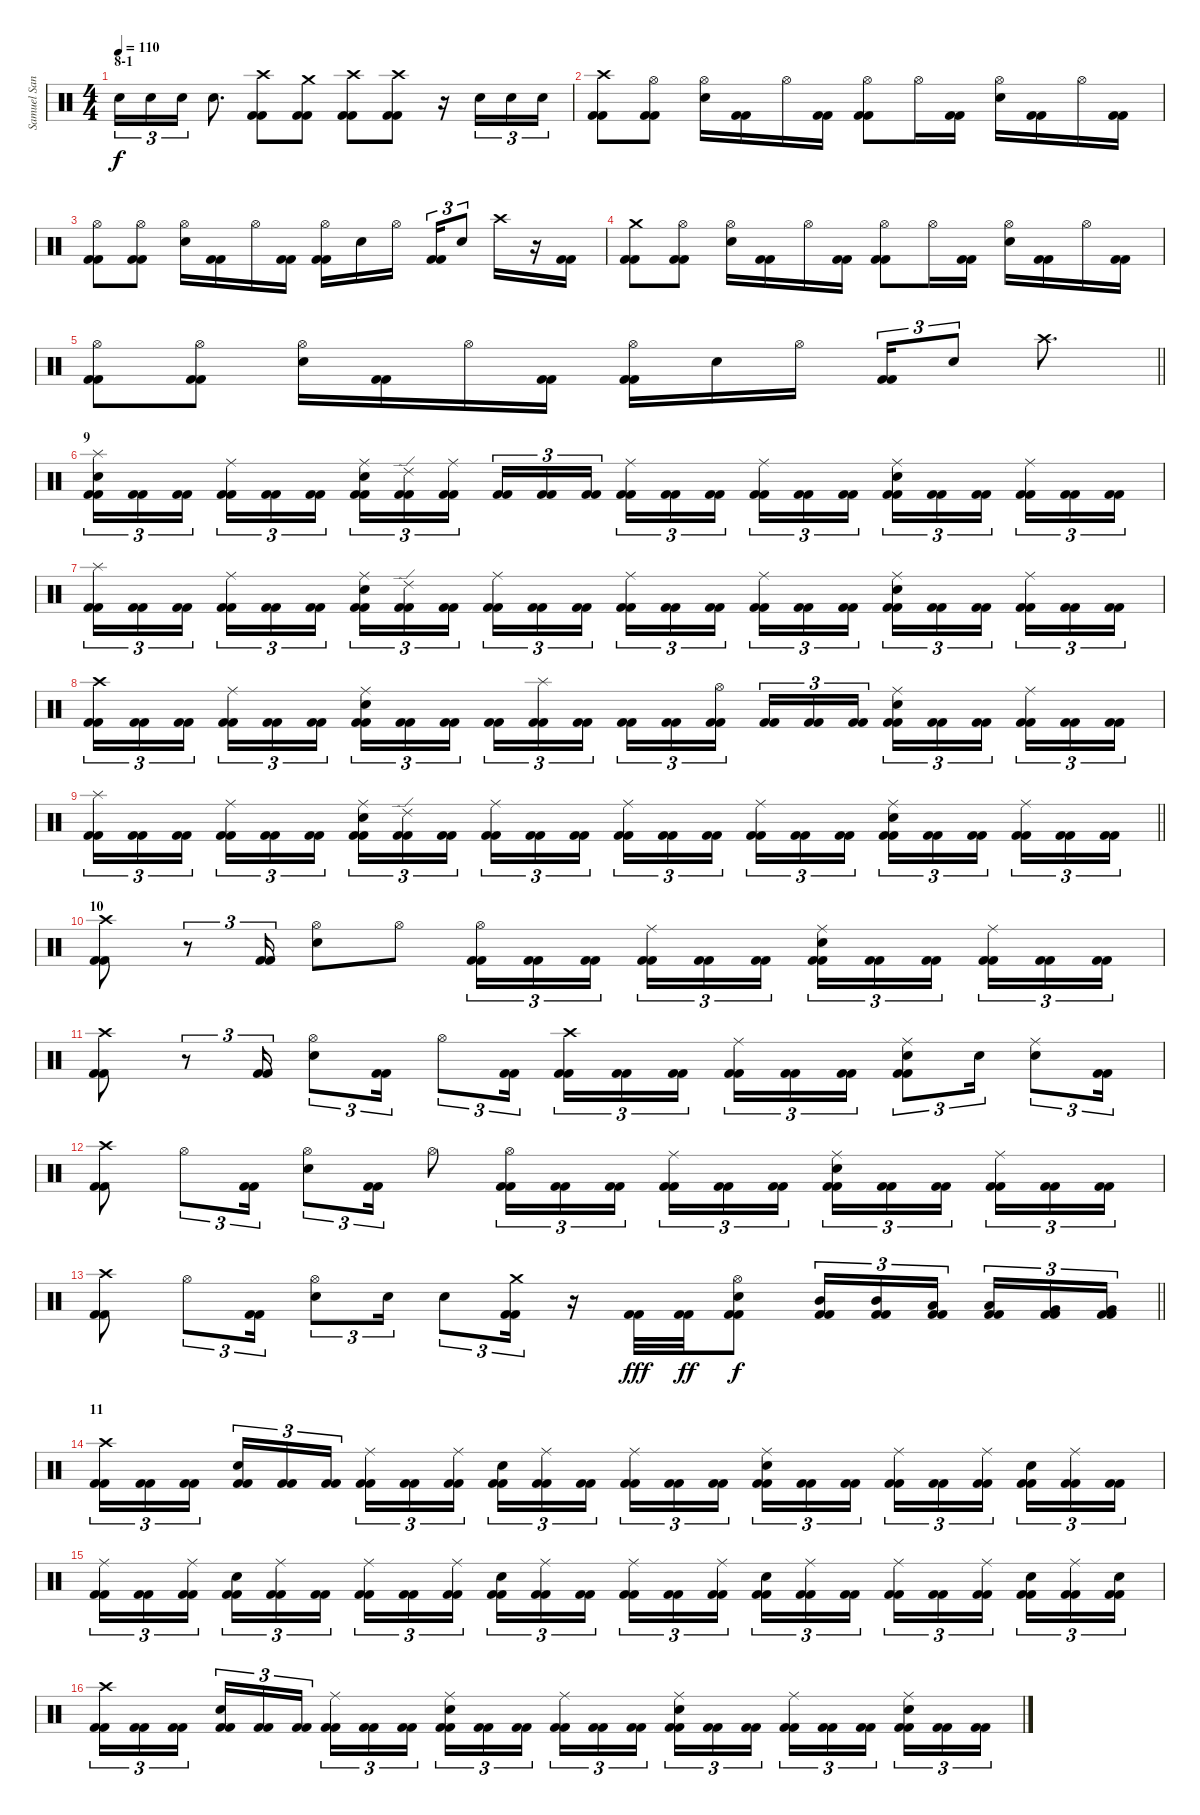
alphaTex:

\track ("Samuel Santiago" "Samuel San") {instrument percussion}
\staff {score}
\articulation defaults
\ts (4 4)
\section ("" "8-1")
\tempo 110
\clef neutral
\ks c "Electric Snare (hit)".16{tu (3 2) dy f} "Electric Snare (hit)".16{tu (3 2)} "Electric Snare (hit)".16{tu (3 2)} "Electric Snare (hit)".8{d}
("Crash high (hit)" "Kick (hit) 2" "Kick (hit) 2").8 ("Crash medium (hit)" "Kick (hit) 2" "Kick (hit) 2").8 ("Crash high (hit)" "Kick (hit) 2" "Kick (hit) 2").8 ("Crash high (hit)" "Kick (hit) 2" "Kick (hit) 2").8 r.16 "Electric Snare (hit)".16{tu (3 2)} "Electric Snare (hit)".16{tu (3 2)} "Electric Snare (hit)".16{tu (3 2)} |
("Crash high (hit)" "Kick (hit) 2" "Kick (hit) 2").8 ("Hi-Hat (open)" "Kick (hit) 2" "Kick (hit) 2").8 ("Hi-Hat (open)" "Electric Snare (hit)").16 ("Kick (hit) 2" "Kick (hit) 2").16 "Hi-Hat (open)".16 ("Kick (hit) 2" "Kick (hit) 2").16 ("Hi-Hat (open)" "Kick (hit) 2" "Kick (hit) 2").8 "Hi-Hat (open)".16 ("Kick (hit) 2" "Kick (hit) 2").16 ("Hi-Hat (open)" "Electric Snare (hit)").16 ("Kick (hit) 2" "Kick (hit) 2").16 "Hi-Hat (open)".16 ("Kick (hit) 2" "Kick (hit) 2").16 |
("Hi-Hat (open)" "Kick (hit) 2" "Kick (hit) 2").8 ("Hi-Hat (open)" "Kick (hit) 2" "Kick (hit) 2").8 ("Hi-Hat (open)" "Electric Snare (hit)").16 ("Kick (hit) 2" "Kick (hit) 2").16 "Hi-Hat (open)".16 ("Kick (hit) 2" "Kick (hit) 2").16 ("Hi-Hat (open)" "Kick (hit) 2" "Kick (hit) 2").16 "Electric Snare (hit)".16 "Hi-Hat (open)".16{beam splitsecondary} ("Kick (hit) 2" "Kick (hit) 2").16{tu (3 2)} "Electric Snare (hit)".8{tu (3 2)} "Crash high (hit)".16 r.16 ("Kick (hit) 2" "Kick (hit) 2").16 |
("Crash medium (hit)" "Kick (hit) 2" "Kick (hit) 2").8 ("Hi-Hat (open)" "Kick (hit) 2" "Kick (hit) 2").8 ("Hi-Hat (open)" "Electric Snare (hit)").16 ("Kick (hit) 2" "Kick (hit) 2").16 "Hi-Hat (open)".16 ("Kick (hit) 2" "Kick (hit) 2").16 ("Hi-Hat (open)" "Kick (hit) 2" "Kick (hit) 2").8 "Hi-Hat (open)".16 ("Kick (hit) 2" "Kick (hit) 2").16 ("Hi-Hat (open)" "Electric Snare (hit)").16 ("Kick (hit) 2" "Kick (hit) 2").16 "Hi-Hat (open)".16 ("Kick (hit) 2" "Kick (hit) 2").16 |
\barLineRight lightlight
("Hi-Hat (open)" "Kick (hit) 2" "Kick (hit) 2").8 ("Hi-Hat (open)" "Kick (hit) 2" "Kick (hit) 2").8 ("Hi-Hat (open)" "Electric Snare (hit)").16 ("Kick (hit) 2" "Kick (hit) 2").16 "Hi-Hat (open)".16 ("Kick (hit) 2" "Kick (hit) 2").16 ("Hi-Hat (open)" "Kick (hit) 2" "Kick (hit) 2").16 "Electric Snare (hit)".16 "Hi-Hat (open)".16{beam splitsecondary} ("Kick (hit) 2" "Kick (hit) 2").16{tu (3 2)} "Electric Snare (hit)".8{tu (3 2)} "Crash high (hit)".8{d} |
\section ("" "9")
("Splash (hit)" "Electric Snare (hit)" "Kick (hit) 2" "Kick (hit) 2").16{tu (3 2)} ("Kick (hit) 2" "Kick (hit) 2").16{tu (3 2)} ("Kick (hit) 2" "Kick (hit) 2").16{tu (3 2) beam splitsecondary} ("Ride (middle)" "Kick (hit) 2" "Kick (hit) 2").16{tu (3 2)} ("Kick (hit) 2" "Kick (hit) 2").16{tu (3 2)} ("Kick (hit) 2" "Kick (hit) 2").16{tu (3 2)} ("Ride (middle)" "Electric Snare (hit)" "Kick (hit) 2" "Kick (hit) 2").16{tu (3 2)} ("Ride (edge) 2" "Kick (hit) 2" "Kick (hit) 2").16{tu (3 2)} ("Ride (middle)" "Kick (hit) 2" "Kick (hit) 2").16{tu (3 2) beam splitsecondary} ("Kick (hit) 2" "Kick (hit) 2").16{tu (3 2)} ("Kick (hit) 2" "Kick (hit) 2").16{tu (3 2)} ("Kick (hit) 2" "Kick (hit) 2").16{tu (3 2)} ("Ride (middle)" "Kick (hit) 2" "Kick (hit) 2").16{tu (3 2)} ("Kick (hit) 2" "Kick (hit) 2").16{tu (3 2)} ("Kick (hit) 2" "Kick (hit) 2").16{tu (3 2) beam splitsecondary} ("Ride (middle)" "Kick (hit) 2" "Kick (hit) 2").16{tu (3 2)} ("Kick (hit) 2" "Kick (hit) 2").16{tu (3 2)} ("Kick (hit) 2" "Kick (hit) 2").16{tu (3 2)} ("Ride (middle)" "Electric Snare (hit)" "Kick (hit) 2" "Kick (hit) 2").16{tu (3 2)} ("Kick (hit) 2" "Kick (hit) 2").16{tu (3 2)} ("Kick (hit) 2" "Kick (hit) 2").16{tu (3 2) beam splitsecondary} ("Ride (middle)" "Kick (hit) 2" "Kick (hit) 2").16{tu (3 2)} ("Kick (hit) 2" "Kick (hit) 2").16{tu (3 2)} ("Kick (hit) 2" "Kick (hit) 2").16{tu (3 2)} |
("Splash (hit)" "Kick (hit) 2" "Kick (hit) 2").16{tu (3 2)} ("Kick (hit) 2" "Kick (hit) 2").16{tu (3 2)} ("Kick (hit) 2" "Kick (hit) 2").16{tu (3 2) beam splitsecondary} ("Ride (middle)" "Kick (hit) 2" "Kick (hit) 2").16{tu (3 2)} ("Kick (hit) 2" "Kick (hit) 2").16{tu (3 2)} ("Kick (hit) 2" "Kick (hit) 2").16{tu (3 2)} ("Ride (middle)" "Electric Snare (hit)" "Kick (hit) 2" "Kick (hit) 2").16{tu (3 2)} ("Ride (edge) 2" "Kick (hit) 2" "Kick (hit) 2").16{tu (3 2)} ("Kick (hit) 2" "Kick (hit) 2").16{tu (3 2) beam splitsecondary} ("Ride (middle)" "Kick (hit) 2" "Kick (hit) 2").16{tu (3 2)} ("Kick (hit) 2" "Kick (hit) 2").16{tu (3 2)} ("Kick (hit) 2" "Kick (hit) 2").16{tu (3 2)} ("Ride (middle)" "Kick (hit) 2" "Kick (hit) 2").16{tu (3 2)} ("Kick (hit) 2" "Kick (hit) 2").16{tu (3 2)} ("Kick (hit) 2" "Kick (hit) 2").16{tu (3 2) beam splitsecondary} ("Ride (middle)" "Kick (hit) 2" "Kick (hit) 2").16{tu (3 2)} ("Kick (hit) 2" "Kick (hit) 2").16{tu (3 2)} ("Kick (hit) 2" "Kick (hit) 2").16{tu (3 2)} ("Ride (middle)" "Electric Snare (hit)" "Kick (hit) 2" "Kick (hit) 2").16{tu (3 2)} ("Kick (hit) 2" "Kick (hit) 2").16{tu (3 2)} ("Kick (hit) 2" "Kick (hit) 2").16{tu (3 2) beam splitsecondary} ("Ride (middle)" "Kick (hit) 2" "Kick (hit) 2").16{tu (3 2)} ("Kick (hit) 2" "Kick (hit) 2").16{tu (3 2)} ("Kick (hit) 2" "Kick (hit) 2").16{tu (3 2)} |
("Crash high (hit)" "Kick (hit) 2" "Kick (hit) 2").16{tu (3 2)} ("Kick (hit) 2" "Kick (hit) 2").16{tu (3 2)} ("Kick (hit) 2" "Kick (hit) 2").16{tu (3 2) beam splitsecondary} ("Ride (middle)" "Kick (hit) 2" "Kick (hit) 2").16{tu (3 2)} ("Kick (hit) 2" "Kick (hit) 2").16{tu (3 2)} ("Kick (hit) 2" "Kick (hit) 2").16{tu (3 2)} ("Ride (middle)" "Electric Snare (hit)" "Kick (hit) 2" "Kick (hit) 2").16{tu (3 2)} ("Kick (hit) 2" "Kick (hit) 2").16{tu (3 2)} ("Kick (hit) 2" "Kick (hit) 2").16{tu (3 2) beam splitsecondary} ("Kick (hit) 2" "Kick (hit) 2").16{tu (3 2)} ("Splash (hit)" "Kick (hit) 2" "Kick (hit) 2").16{tu (3 2)} ("Kick (hit) 2" "Kick (hit) 2").16{tu (3 2)} ("Kick (hit) 2" "Kick (hit) 2").16{tu (3 2)} ("Kick (hit) 2" "Kick (hit) 2").16{tu (3 2)} ("Hi-Hat (open)" "Kick (hit) 2" "Kick (hit) 2").16{tu (3 2) beam splitsecondary} ("Kick (hit) 2" "Kick (hit) 2").16{tu (3 2)} ("Kick (hit) 2" "Kick (hit) 2").16{tu (3 2)} ("Kick (hit) 2" "Kick (hit) 2").16{tu (3 2)} ("Ride (middle)" "Electric Snare (hit)" "Kick (hit) 2" "Kick (hit) 2").16{tu (3 2)} ("Kick (hit) 2" "Kick (hit) 2").16{tu (3 2)} ("Kick (hit) 2" "Kick (hit) 2").16{tu (3 2) beam splitsecondary} ("Ride (middle)" "Kick (hit) 2" "Kick (hit) 2").16{tu (3 2)} ("Kick (hit) 2" "Kick (hit) 2").16{tu (3 2)} ("Kick (hit) 2" "Kick (hit) 2").16{tu (3 2)} |
\barLineRight lightlight
("Splash (hit)" "Kick (hit) 2" "Kick (hit) 2").16{tu (3 2)} ("Kick (hit) 2" "Kick (hit) 2").16{tu (3 2)} ("Kick (hit) 2" "Kick (hit) 2").16{tu (3 2) beam splitsecondary} ("Ride (middle)" "Kick (hit) 2" "Kick (hit) 2").16{tu (3 2)} ("Kick (hit) 2" "Kick (hit) 2").16{tu (3 2)} ("Kick (hit) 2" "Kick (hit) 2").16{tu (3 2)} ("Ride (middle)" "Electric Snare (hit)" "Kick (hit) 2" "Kick (hit) 2").16{tu (3 2)} ("Ride (edge) 2" "Kick (hit) 2" "Kick (hit) 2").16{tu (3 2)} ("Kick (hit) 2" "Kick (hit) 2").16{tu (3 2) beam splitsecondary} ("Ride (middle)" "Kick (hit) 2" "Kick (hit) 2").16{tu (3 2)} ("Kick (hit) 2" "Kick (hit) 2").16{tu (3 2)} ("Kick (hit) 2" "Kick (hit) 2").16{tu (3 2)} ("Ride (middle)" "Kick (hit) 2" "Kick (hit) 2").16{tu (3 2)} ("Kick (hit) 2" "Kick (hit) 2").16{tu (3 2)} ("Kick (hit) 2" "Kick (hit) 2").16{tu (3 2) beam splitsecondary} ("Ride (middle)" "Kick (hit) 2" "Kick (hit) 2").16{tu (3 2)} ("Kick (hit) 2" "Kick (hit) 2").16{tu (3 2)} ("Kick (hit) 2" "Kick (hit) 2").16{tu (3 2)} ("Ride (middle)" "Electric Snare (hit)" "Kick (hit) 2" "Kick (hit) 2").16{tu (3 2)} ("Kick (hit) 2" "Kick (hit) 2").16{tu (3 2)} ("Kick (hit) 2" "Kick (hit) 2").16{tu (3 2) beam splitsecondary} ("Ride (middle)" "Kick (hit) 2" "Kick (hit) 2").16{tu (3 2)} ("Kick (hit) 2" "Kick (hit) 2").16{tu (3 2)} ("Kick (hit) 2" "Kick (hit) 2").16{tu (3 2)} |
\section ("" "10")
("Crash high (hit)" "Kick (hit) 2" "Kick (hit) 2").8 r.8{tu (3 2)} ("Kick (hit) 2" "Kick (hit) 2").16{tu (3 2)} ("Hi-Hat (open)" "Electric Snare (hit)").8 "Hi-Hat (open)".8 ("Hi-Hat (open)" "Kick (hit) 2" "Kick (hit) 2").16{tu (3 2)} ("Kick (hit) 2" "Kick (hit) 2").16{tu (3 2)} ("Kick (hit) 2" "Kick (hit) 2").16{tu (3 2) beam splitsecondary} ("Ride (middle)" "Kick (hit) 2" "Kick (hit) 2").16{tu (3 2)} ("Kick (hit) 2" "Kick (hit) 2").16{tu (3 2)} ("Kick (hit) 2" "Kick (hit) 2").16{tu (3 2)} ("Ride (middle)" "Electric Snare (hit)" "Kick (hit) 2" "Kick (hit) 2").16{tu (3 2)} ("Kick (hit) 2" "Kick (hit) 2").16{tu (3 2)} ("Kick (hit) 2" "Kick (hit) 2").16{tu (3 2) beam splitsecondary} ("Ride (middle)" "Kick (hit) 2" "Kick (hit) 2").16{tu (3 2)} ("Kick (hit) 2" "Kick (hit) 2").16{tu (3 2)} ("Kick (hit) 2" "Kick (hit) 2").16{tu (3 2)} |
("Crash high (hit)" "Kick (hit) 2" "Kick (hit) 2").8 r.8{tu (3 2)} ("Kick (hit) 2" "Kick (hit) 2").16{tu (3 2)} ("Hi-Hat (open)" "Electric Snare (hit)").8{tu (3 2)} ("Kick (hit) 2" "Kick (hit) 2").16{tu (3 2)} "Hi-Hat (open)".8{tu (3 2)} ("Kick (hit) 2" "Kick (hit) 2").16{tu (3 2)} ("Crash high (hit)" "Kick (hit) 2" "Kick (hit) 2").16{tu (3 2)} ("Kick (hit) 2" "Kick (hit) 2").16{tu (3 2)} ("Kick (hit) 2" "Kick (hit) 2").16{tu (3 2) beam splitsecondary} ("Ride (middle)" "Kick (hit) 2" "Kick (hit) 2").16{tu (3 2)} ("Kick (hit) 2" "Kick (hit) 2").16{tu (3 2)} ("Kick (hit) 2" "Kick (hit) 2").16{tu (3 2)} ("Ride (middle)" "Electric Snare (hit)" "Kick (hit) 2" "Kick (hit) 2").8{tu (3 2)} "Electric Snare (hit)".16{tu (3 2)} ("Ride (middle)" "Electric Snare (hit)").8{tu (3 2)} ("Kick (hit) 2" "Kick (hit) 2").16{tu (3 2)} |
("Crash high (hit)" "Kick (hit) 2" "Kick (hit) 2").8 "Hi-Hat (open)".8{tu (3 2)} ("Kick (hit) 2" "Kick (hit) 2").16{tu (3 2)} ("Hi-Hat (open)" "Electric Snare (hit)").8{tu (3 2)} ("Kick (hit) 2" "Kick (hit) 2").16{tu (3 2)} "Hi-Hat (open)".8 ("Hi-Hat (open)" "Kick (hit) 2" "Kick (hit) 2").16{tu (3 2)} ("Kick (hit) 2" "Kick (hit) 2").16{tu (3 2)} ("Kick (hit) 2" "Kick (hit) 2").16{tu (3 2) beam splitsecondary} ("Ride (middle)" "Kick (hit) 2" "Kick (hit) 2").16{tu (3 2)} ("Kick (hit) 2" "Kick (hit) 2").16{tu (3 2)} ("Kick (hit) 2" "Kick (hit) 2").16{tu (3 2)} ("Ride (middle)" "Electric Snare (hit)" "Kick (hit) 2" "Kick (hit) 2").16{tu (3 2)} ("Kick (hit) 2" "Kick (hit) 2").16{tu (3 2)} ("Kick (hit) 2" "Kick (hit) 2").16{tu (3 2) beam splitsecondary} ("Ride (middle)" "Kick (hit) 2" "Kick (hit) 2").16{tu (3 2)} ("Kick (hit) 2" "Kick (hit) 2").16{tu (3 2)} ("Kick (hit) 2" "Kick (hit) 2").16{tu (3 2)} |
\barLineRight lightlight
("Crash high (hit)" "Kick (hit) 2" "Kick (hit) 2").8 "Hi-Hat (open)".8{tu (3 2)} ("Kick (hit) 2" "Kick (hit) 2").16{tu (3 2)} ("Hi-Hat (open)" "Electric Snare (hit)").8{tu (3 2)} "Electric Snare (hit)".16{tu (3 2)} "Electric Snare (hit)".8{tu (3 2)} ("Crash medium (hit)" "Kick (hit) 2" "Kick (hit) 2").16{tu (3 2)} r.16 ("Kick (hit) 2" "Kick (hit) 2").32{dy fff} ("Kick (hit) 2" "Kick (hit) 2").32{dy ff} ("Hi-Hat (open)" "Electric Snare (hit)" "Kick (hit) 2" "Kick (hit) 2").8{dy f} ("Mid Tom (hit)" "Kick (hit) 2" "Kick (hit) 2").16{tu (3 2)} ("Mid Tom (hit)" "Kick (hit) 2" "Kick (hit) 2").16{tu (3 2)} ("Low Tom (hit)" "Kick (hit) 2" "Kick (hit) 2").16{tu (3 2) beam splitsecondary} ("Low Tom (hit)" "Kick (hit) 2" "Kick (hit) 2").16{tu (3 2)} ("Very Low Tom (hit)" "Kick (hit) 2" "Kick (hit) 2").16{tu (3 2)} ("Very Low Tom (hit)" "Kick (hit) 2" "Kick (hit) 2").16{tu (3 2)} |
\section ("" "11")
("Crash high (hit)" "Kick (hit) 2" "Kick (hit) 2").16{tu (3 2)} ("Kick (hit) 2" "Kick (hit) 2").16{tu (3 2)} ("Kick (hit) 2" "Kick (hit) 2").16{tu (3 2) beam splitsecondary} ("Electric Snare (hit)" "Kick (hit) 2" "Kick (hit) 2").16{tu (3 2)} ("Kick (hit) 2" "Kick (hit) 2").16{tu (3 2)} ("Kick (hit) 2" "Kick (hit) 2").16{tu (3 2)} ("Ride (middle)" "Kick (hit) 2" "Kick (hit) 2").16{tu (3 2)} ("Kick (hit) 2" "Kick (hit) 2").16{tu (3 2)} ("Ride (middle)" "Kick (hit) 2" "Kick (hit) 2").16{tu (3 2) beam splitsecondary} ("Electric Snare (hit)" "Kick (hit) 2" "Kick (hit) 2").16{tu (3 2)} ("Ride (middle)" "Kick (hit) 2" "Kick (hit) 2").16{tu (3 2)} ("Kick (hit) 2" "Kick (hit) 2").16{tu (3 2)} ("Ride (middle)" "Kick (hit) 2" "Kick (hit) 2").16{tu (3 2)} ("Kick (hit) 2" "Kick (hit) 2").16{tu (3 2)} ("Kick (hit) 2" "Kick (hit) 2").16{tu (3 2) beam splitsecondary} ("Ride (middle)" "Electric Snare (hit)" "Kick (hit) 2" "Kick (hit) 2").16{tu (3 2)} ("Kick (hit) 2" "Kick (hit) 2").16{tu (3 2)} ("Kick (hit) 2" "Kick (hit) 2").16{tu (3 2)} ("Ride (middle)" "Kick (hit) 2" "Kick (hit) 2").16{tu (3 2)} ("Kick (hit) 2" "Kick (hit) 2").16{tu (3 2)} ("Ride (middle)" "Kick (hit) 2" "Kick (hit) 2").16{tu (3 2) beam splitsecondary} ("Electric Snare (hit)" "Kick (hit) 2" "Kick (hit) 2").16{tu (3 2)} ("Ride (middle)" "Kick (hit) 2" "Kick (hit) 2").16{tu (3 2)} ("Kick (hit) 2" "Kick (hit) 2").16{tu (3 2)} |
("Ride (middle)" "Kick (hit) 2" "Kick (hit) 2").16{tu (3 2)} ("Kick (hit) 2" "Kick (hit) 2").16{tu (3 2)} ("Ride (middle)" "Kick (hit) 2" "Kick (hit) 2").16{tu (3 2) beam splitsecondary} ("Electric Snare (hit)" "Kick (hit) 2" "Kick (hit) 2").16{tu (3 2)} ("Ride (middle)" "Kick (hit) 2" "Kick (hit) 2").16{tu (3 2)} ("Kick (hit) 2" "Kick (hit) 2").16{tu (3 2)} ("Ride (middle)" "Kick (hit) 2" "Kick (hit) 2").16{tu (3 2)} ("Kick (hit) 2" "Kick (hit) 2").16{tu (3 2)} ("Ride (middle)" "Kick (hit) 2" "Kick (hit) 2").16{tu (3 2) beam splitsecondary} ("Electric Snare (hit)" "Kick (hit) 2" "Kick (hit) 2").16{tu (3 2)} ("Ride (middle)" "Kick (hit) 2" "Kick (hit) 2").16{tu (3 2)} ("Kick (hit) 2" "Kick (hit) 2").16{tu (3 2)} ("Ride (middle)" "Kick (hit) 2" "Kick (hit) 2").16{tu (3 2)} ("Kick (hit) 2" "Kick (hit) 2").16{tu (3 2)} ("Ride (middle)" "Kick (hit) 2" "Kick (hit) 2").16{tu (3 2) beam splitsecondary} ("Electric Snare (hit)" "Kick (hit) 2" "Kick (hit) 2").16{tu (3 2)} ("Ride (middle)" "Kick (hit) 2" "Kick (hit) 2").16{tu (3 2)} ("Kick (hit) 2" "Kick (hit) 2").16{tu (3 2)} ("Ride (middle)" "Kick (hit) 2" "Kick (hit) 2").16{tu (3 2)} ("Kick (hit) 2" "Kick (hit) 2").16{tu (3 2)} ("Ride (middle)" "Kick (hit) 2" "Kick (hit) 2").16{tu (3 2) beam splitsecondary} ("Electric Snare (hit)" "Kick (hit) 2" "Kick (hit) 2").16{tu (3 2)} ("Ride (middle)" "Kick (hit) 2" "Kick (hit) 2").16{tu (3 2)} ("Electric Snare (hit)" "Kick (hit) 2" "Kick (hit) 2").16{tu (3 2)} |
("Crash high (hit)" "Kick (hit) 2" "Kick (hit) 2").16{tu (3 2)} ("Kick (hit) 2" "Kick (hit) 2").16{tu (3 2)} ("Kick (hit) 2" "Kick (hit) 2").16{tu (3 2) beam splitsecondary} ("Electric Snare (hit)" "Kick (hit) 2" "Kick (hit) 2").16{tu (3 2)} ("Kick (hit) 2" "Kick (hit) 2").16{tu (3 2)} ("Kick (hit) 2" "Kick (hit) 2").16{tu (3 2)} ("Ride (middle)" "Kick (hit) 2" "Kick (hit) 2").16{tu (3 2)} ("Kick (hit) 2" "Kick (hit) 2").16{tu (3 2)} ("Kick (hit) 2" "Kick (hit) 2").16{tu (3 2) beam splitsecondary} ("Ride (middle)" "Electric Snare (hit)" "Kick (hit) 2" "Kick (hit) 2").16{tu (3 2)} ("Kick (hit) 2" "Kick (hit) 2").16{tu (3 2)} ("Kick (hit) 2" "Kick (hit) 2").16{tu (3 2)} ("Ride (middle)" "Kick (hit) 2" "Kick (hit) 2").16{tu (3 2)} ("Kick (hit) 2" "Kick (hit) 2").16{tu (3 2)} ("Kick (hit) 2" "Kick (hit) 2").16{tu (3 2) beam splitsecondary} ("Ride (middle)" "Electric Snare (hit)" "Kick (hit) 2" "Kick (hit) 2").16{tu (3 2)} ("Kick (hit) 2" "Kick (hit) 2").16{tu (3 2)} ("Kick (hit) 2" "Kick (hit) 2").16{tu (3 2)} ("Ride (middle)" "Kick (hit) 2" "Kick (hit) 2").16{tu (3 2)} ("Kick (hit) 2" "Kick (hit) 2").16{tu (3 2)} ("Kick (hit) 2" "Kick (hit) 2").16{tu (3 2) beam splitsecondary} ("Ride (middle)" "Electric Snare (hit)" "Kick (hit) 2" "Kick (hit) 2").16{tu (3 2)} ("Kick (hit) 2" "Kick (hit) 2").16{tu (3 2)} ("Kick (hit) 2" "Kick (hit) 2").16{tu (3 2)}
